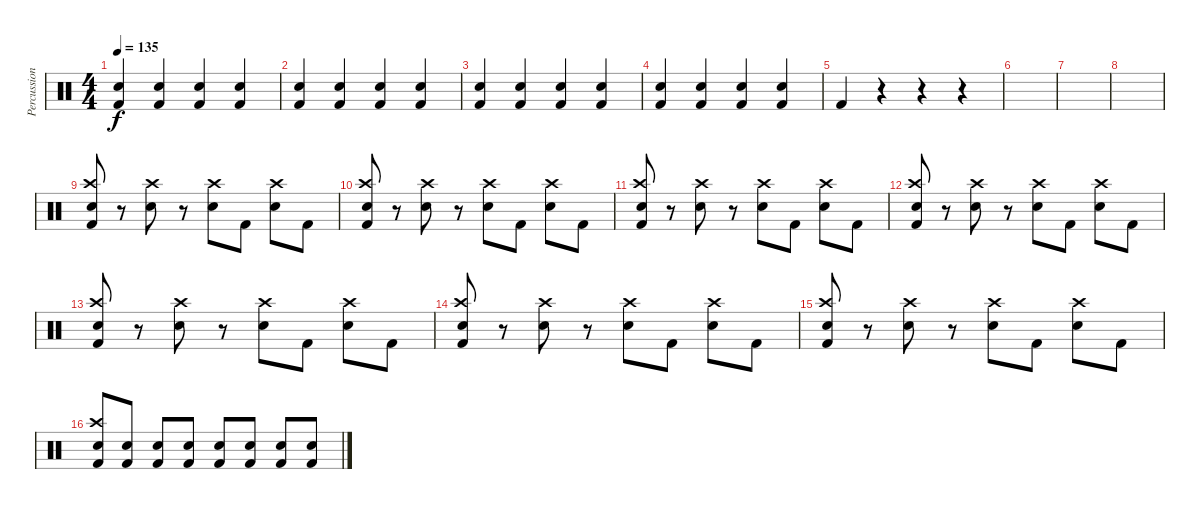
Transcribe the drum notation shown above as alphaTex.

\track ("Percussion" "Percussion") {instrument percussion}
\staff {score}
\articulation defaults
\ts (4 4)
\tempo 135
\clef neutral
\ks c
("Hand Clap (hit)" "Kick (hit) 2").4{dy f} ("Hand Clap (hit)" "Kick (hit) 2").4 ("Hand Clap (hit)" "Kick (hit) 2").4 ("Hand Clap (hit)" "Kick (hit) 2").4 |
("Hand Clap (hit)" "Kick (hit) 2").4 ("Hand Clap (hit)" "Kick (hit) 2").4 ("Hand Clap (hit)" "Kick (hit) 2").4 ("Hand Clap (hit)" "Kick (hit) 2").4 |
("Hand Clap (hit)" "Kick (hit) 2").4 ("Hand Clap (hit)" "Kick (hit) 2").4 ("Hand Clap (hit)" "Kick (hit) 2").4 ("Hand Clap (hit)" "Kick (hit) 2").4 |
("Hand Clap (hit)" "Kick (hit) 2").4 ("Hand Clap (hit)" "Kick (hit) 2").4 ("Hand Clap (hit)" "Kick (hit) 2").4 ("Hand Clap (hit)" "Kick (hit) 2").4 |
"Kick (hit) 2".4 r.4 r.4 r.4 |
|
|
|
("Crash high (hit)" "Snare (hit) 2" "Kick (hit) 2").8 r.8 ("Crash high (hit)" "Snare (hit) 2").8 r.8 ("Crash high (hit)" "Snare (hit) 2").8 "Kick (hit) 2".8 ("Crash high (hit)" "Snare (hit) 2").8 "Kick (hit) 2".8 |
("Crash high (hit)" "Snare (hit) 2" "Kick (hit) 2").8 r.8 ("Crash high (hit)" "Snare (hit) 2").8 r.8 ("Crash high (hit)" "Snare (hit) 2").8 "Kick (hit) 2".8 ("Crash high (hit)" "Snare (hit) 2").8 "Kick (hit) 2".8 |
("Crash high (hit)" "Snare (hit) 2" "Kick (hit) 2").8 r.8 ("Crash high (hit)" "Snare (hit) 2").8 r.8 ("Crash high (hit)" "Snare (hit) 2").8 "Kick (hit) 2".8 ("Crash high (hit)" "Snare (hit) 2").8 "Kick (hit) 2".8 |
("Crash high (hit)" "Snare (hit) 2" "Kick (hit) 2").8 r.8 ("Crash high (hit)" "Snare (hit) 2").8 r.8 ("Crash high (hit)" "Snare (hit) 2").8 "Kick (hit) 2".8 ("Crash high (hit)" "Snare (hit) 2").8 "Kick (hit) 2".8 |
("Crash high (hit)" "Snare (hit) 2" "Kick (hit) 2").8 r.8 ("Crash high (hit)" "Snare (hit) 2").8 r.8 ("Crash high (hit)" "Snare (hit) 2").8 "Kick (hit) 2".8 ("Crash high (hit)" "Snare (hit) 2").8 "Kick (hit) 2".8 |
("Crash high (hit)" "Snare (hit) 2" "Kick (hit) 2").8 r.8 ("Crash high (hit)" "Snare (hit) 2").8 r.8 ("Crash high (hit)" "Snare (hit) 2").8 "Kick (hit) 2".8 ("Crash high (hit)" "Snare (hit) 2").8 "Kick (hit) 2".8 |
("Crash high (hit)" "Snare (hit) 2" "Kick (hit) 2").8 r.8 ("Crash high (hit)" "Snare (hit) 2").8 r.8 ("Crash high (hit)" "Snare (hit) 2").8 "Kick (hit) 2".8 ("Crash high (hit)" "Snare (hit) 2").8 "Kick (hit) 2".8 |
("Crash high (hit)" "Snare (hit) 2" "Kick (hit) 2").8 ("Snare (hit) 2" "Kick (hit) 2").8 ("Snare (hit) 2" "Kick (hit) 2").8 ("Snare (hit) 2" "Kick (hit) 2").8 ("Snare (hit) 2" "Kick (hit) 2").8 ("Snare (hit) 2" "Kick (hit) 2").8 ("Snare (hit) 2" "Kick (hit) 2").8 ("Snare (hit) 2" "Kick (hit) 2").8
